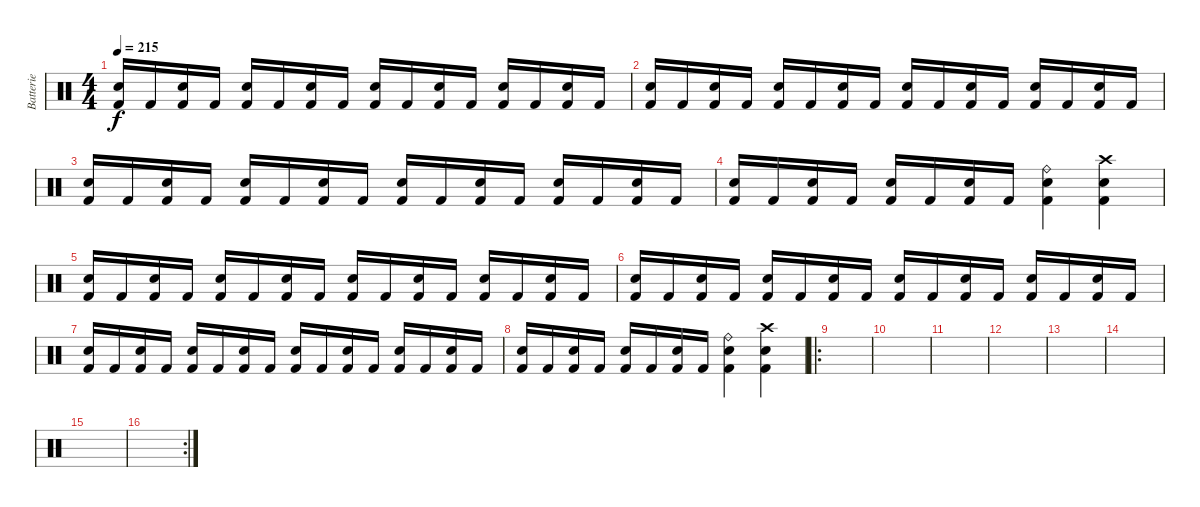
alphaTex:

\track ("Batterie" "Batterie") {instrument percussion}
\staff {score}
\articulation defaults
\ts (4 4)
\tempo 215
\clef neutral
\ks c
("Snare (hit) 2" "Kick (hit) 2").16{dy f} "Kick (hit) 2".16 ("Snare (hit) 2" "Kick (hit) 2").16 "Kick (hit) 2".16 ("Snare (hit) 2" "Kick (hit) 2").16 "Kick (hit) 2".16 ("Snare (hit) 2" "Kick (hit) 2").16 "Kick (hit) 2".16 ("Snare (hit) 2" "Kick (hit) 2").16 "Kick (hit) 2".16 ("Snare (hit) 2" "Kick (hit) 2").16 "Kick (hit) 2".16 ("Snare (hit) 2" "Kick (hit) 2").16 "Kick (hit) 2".16 ("Snare (hit) 2" "Kick (hit) 2").16 "Kick (hit) 2".16 |
("Snare (hit) 2" "Kick (hit) 2").16 "Kick (hit) 2".16 ("Snare (hit) 2" "Kick (hit) 2").16 "Kick (hit) 2".16 ("Snare (hit) 2" "Kick (hit) 2").16 "Kick (hit) 2".16 ("Snare (hit) 2" "Kick (hit) 2").16 "Kick (hit) 2".16 ("Snare (hit) 2" "Kick (hit) 2").16 "Kick (hit) 2".16 ("Snare (hit) 2" "Kick (hit) 2").16 "Kick (hit) 2".16 ("Snare (hit) 2" "Kick (hit) 2").16 "Kick (hit) 2".16 ("Snare (hit) 2" "Kick (hit) 2").16 "Kick (hit) 2".16 |
("Snare (hit) 2" "Kick (hit) 2").16 "Kick (hit) 2".16 ("Snare (hit) 2" "Kick (hit) 2").16 "Kick (hit) 2".16 ("Snare (hit) 2" "Kick (hit) 2").16 "Kick (hit) 2".16 ("Snare (hit) 2" "Kick (hit) 2").16 "Kick (hit) 2".16 ("Snare (hit) 2" "Kick (hit) 2").16 "Kick (hit) 2".16 ("Snare (hit) 2" "Kick (hit) 2").16 "Kick (hit) 2".16 ("Snare (hit) 2" "Kick (hit) 2").16 "Kick (hit) 2".16 ("Snare (hit) 2" "Kick (hit) 2").16 "Kick (hit) 2".16 |
("Snare (hit) 2" "Kick (hit) 2").16 "Kick (hit) 2".16 ("Snare (hit) 2" "Kick (hit) 2").16 "Kick (hit) 2".16 ("Snare (hit) 2" "Kick (hit) 2").16 "Kick (hit) 2".16 ("Snare (hit) 2" "Kick (hit) 2").16 "Kick (hit) 2".16 ("Ride (bell)" "Snare (hit) 2" "Kick (hit) 2").4 ("Crash high (hit)" "Snare (hit) 2" "Kick (hit) 2").4 |
("Snare (hit) 2" "Kick (hit) 2").16 "Kick (hit) 2".16 ("Snare (hit) 2" "Kick (hit) 2").16 "Kick (hit) 2".16 ("Snare (hit) 2" "Kick (hit) 2").16 "Kick (hit) 2".16 ("Snare (hit) 2" "Kick (hit) 2").16 "Kick (hit) 2".16 ("Snare (hit) 2" "Kick (hit) 2").16 "Kick (hit) 2".16 ("Snare (hit) 2" "Kick (hit) 2").16 "Kick (hit) 2".16 ("Snare (hit) 2" "Kick (hit) 2").16 "Kick (hit) 2".16 ("Snare (hit) 2" "Kick (hit) 2").16 "Kick (hit) 2".16 |
("Snare (hit) 2" "Kick (hit) 2").16 "Kick (hit) 2".16 ("Snare (hit) 2" "Kick (hit) 2").16 "Kick (hit) 2".16 ("Snare (hit) 2" "Kick (hit) 2").16 "Kick (hit) 2".16 ("Snare (hit) 2" "Kick (hit) 2").16 "Kick (hit) 2".16 ("Snare (hit) 2" "Kick (hit) 2").16 "Kick (hit) 2".16 ("Snare (hit) 2" "Kick (hit) 2").16 "Kick (hit) 2".16 ("Snare (hit) 2" "Kick (hit) 2").16 "Kick (hit) 2".16 ("Snare (hit) 2" "Kick (hit) 2").16 "Kick (hit) 2".16 |
("Snare (hit) 2" "Kick (hit) 2").16 "Kick (hit) 2".16 ("Snare (hit) 2" "Kick (hit) 2").16 "Kick (hit) 2".16 ("Snare (hit) 2" "Kick (hit) 2").16 "Kick (hit) 2".16 ("Snare (hit) 2" "Kick (hit) 2").16 "Kick (hit) 2".16 ("Snare (hit) 2" "Kick (hit) 2").16 "Kick (hit) 2".16 ("Snare (hit) 2" "Kick (hit) 2").16 "Kick (hit) 2".16 ("Snare (hit) 2" "Kick (hit) 2").16 "Kick (hit) 2".16 ("Snare (hit) 2" "Kick (hit) 2").16 "Kick (hit) 2".16 |
("Snare (hit) 2" "Kick (hit) 2").16 "Kick (hit) 2".16 ("Snare (hit) 2" "Kick (hit) 2").16 "Kick (hit) 2".16 ("Snare (hit) 2" "Kick (hit) 2").16 "Kick (hit) 2".16 ("Snare (hit) 2" "Kick (hit) 2").16 "Kick (hit) 2".16 ("Ride (bell)" "Snare (hit) 2" "Kick (hit) 2").4 ("Crash high (hit)" "Snare (hit) 2" "Kick (hit) 2").4 |
\ro
|
|
|
|
|
|
|
\rc 2
